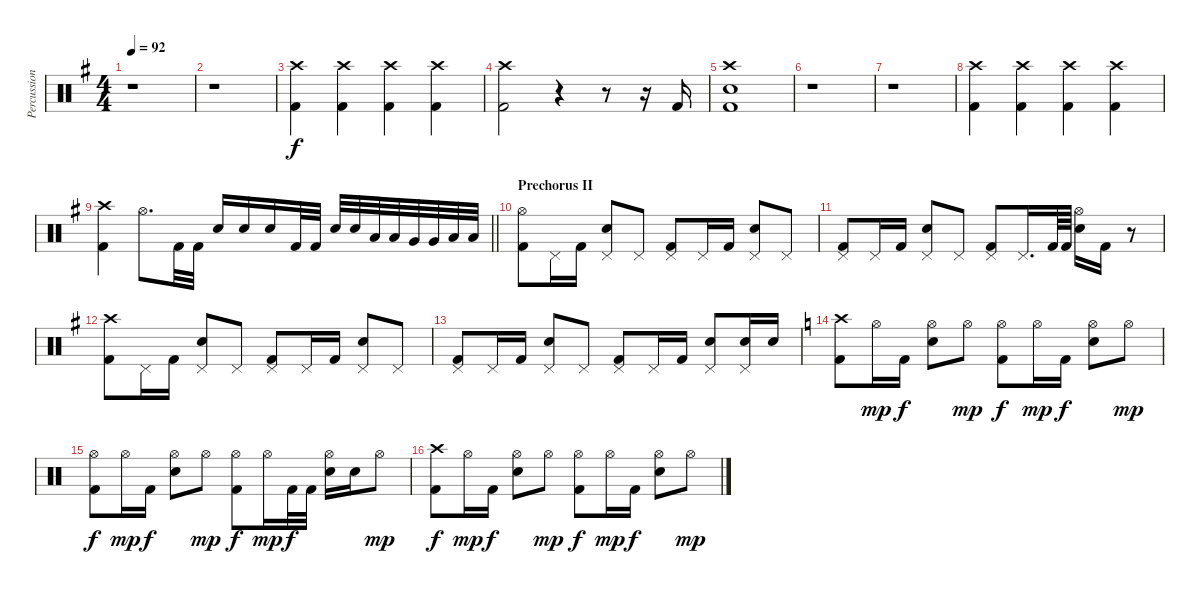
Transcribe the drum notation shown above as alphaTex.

\track ("Percussion" "Percussion") {instrument percussion}
\staff {score}
\articulation defaults
\ts (4 4)
\tempo 92
\clef neutral
\ks eminor
r.1{dy f} |
r.1 |
("Crash high (hit)" "Kick (hit) 2").4 ("Crash high (hit)" "Kick (hit) 2").4 ("Crash high (hit)" "Kick (hit) 2").4 ("Crash high (hit)" "Kick (hit) 2").4 |
("Crash high (hit)" "Kick (hit) 2").2 r.4 r.8 r.16 "Kick (hit) 2".16 |
("Crash high (hit)" "Electric Snare (hit)" "Kick (hit) 2").1 |
r.1 |
r.1 |
("Crash high (hit)" "Kick (hit) 2").4 ("Crash high (hit)" "Kick (hit) 2").4 ("Crash high (hit)" "Kick (hit) 2").4 ("Crash high (hit)" "Kick (hit) 2").4 |
\barLineRight lightlight
("Crash high (hit)" "Kick (hit) 2").4 "Hi-Hat (open)".8{d} "Kick (hit) 2".32 "Kick (hit) 2".32 "Electric Snare (hit)".16 "Electric Snare (hit)".16 "Electric Snare (hit)".16 "Kick (hit) 2".32 "Kick (hit) 2".32 "Electric Snare (hit)".32 "Electric Snare (hit)".32 "Low Tom (hit)".32 "Low Tom (hit)".32 "Very Low Tom (hit)".32 "Very Low Tom (hit)".32 "Low Floor Tom (hit)".32 "Low Floor Tom (hit)".32 |
\section ("" "Prechorus II")
("Hi-Hat (open)" "Kick (hit) 2").8 "Pedal Hi-Hat (hit)".16 "Kick (hit) 2".16 ("Pedal Hi-Hat (hit)" "Electric Snare (hit)").8 "Pedal Hi-Hat (hit)".8 ("Pedal Hi-Hat (hit)" "Kick (hit) 2").8 "Pedal Hi-Hat (hit)".16 "Kick (hit) 2".16 ("Pedal Hi-Hat (hit)" "Electric Snare (hit)").8 "Pedal Hi-Hat (hit)".8 |
("Pedal Hi-Hat (hit)" "Kick (hit) 2").8 "Pedal Hi-Hat (hit)".16 "Kick (hit) 2".16 ("Pedal Hi-Hat (hit)" "Electric Snare (hit)").8 "Pedal Hi-Hat (hit)".8 ("Pedal Hi-Hat (hit)" "Kick (hit) 2").8 "Pedal Hi-Hat (hit)".16{d} "Kick (hit) 2".64 "Kick (hit) 2".64 ("Hi-Hat (open)" "Electric Snare (hit)").16 "Kick (hit) 2".16 r.8 |
("Crash high (hit)" "Kick (hit) 2").8 "Pedal Hi-Hat (hit)".16 "Kick (hit) 2".16 ("Pedal Hi-Hat (hit)" "Electric Snare (hit)").8 "Pedal Hi-Hat (hit)".8 ("Pedal Hi-Hat (hit)" "Kick (hit) 2").8 "Pedal Hi-Hat (hit)".16 "Kick (hit) 2".16 ("Pedal Hi-Hat (hit)" "Electric Snare (hit)").8 "Pedal Hi-Hat (hit)".8 |
("Pedal Hi-Hat (hit)" "Kick (hit) 2").8 "Pedal Hi-Hat (hit)".16 "Kick (hit) 2".16 ("Pedal Hi-Hat (hit)" "Electric Snare (hit)").8 "Pedal Hi-Hat (hit)".8 ("Pedal Hi-Hat (hit)" "Kick (hit) 2").8 "Pedal Hi-Hat (hit)".16 "Kick (hit) 2".16 ("Pedal Hi-Hat (hit)" "Electric Snare (hit)").8 ("Pedal Hi-Hat (hit)" "Electric Snare (hit)").16 "Electric Snare (hit)".16 |
\ks aminor
("Crash high (hit)" "Kick (hit) 2").8 "Hi-Hat (open)".16{dy mp} "Kick (hit) 2".16{dy f} ("Hi-Hat (open)" "Electric Snare (hit)").8 "Hi-Hat (open)".8{dy mp} ("Hi-Hat (open)" "Kick (hit) 2").8{dy f} "Hi-Hat (open)".16{dy mp} "Kick (hit) 2".16{dy f} ("Hi-Hat (open)" "Electric Snare (hit)").8 "Hi-Hat (open)".8{dy mp} |
("Hi-Hat (open)" "Kick (hit) 2").8{dy f} "Hi-Hat (open)".16{dy mp} "Kick (hit) 2".16{dy f} ("Hi-Hat (open)" "Electric Snare (hit)").8 "Hi-Hat (open)".8{dy mp} ("Hi-Hat (open)" "Kick (hit) 2").8{dy f} "Hi-Hat (open)".16{dy mp} "Kick (hit) 2".32{dy f} "Kick (hit) 2".32 ("Hi-Hat (open)" "Electric Snare (hit)").16 "Electric Snare (hit)".16 "Hi-Hat (open)".8{dy mp} |
("Crash high (hit)" "Kick (hit) 2").8{dy f} "Hi-Hat (open)".16{dy mp} "Kick (hit) 2".16{dy f} ("Hi-Hat (open)" "Electric Snare (hit)").8 "Hi-Hat (open)".8{dy mp} ("Hi-Hat (open)" "Kick (hit) 2").8{dy f} "Hi-Hat (open)".16{dy mp} "Kick (hit) 2".16{dy f} ("Hi-Hat (open)" "Electric Snare (hit)").8 "Hi-Hat (open)".8{dy mp}
